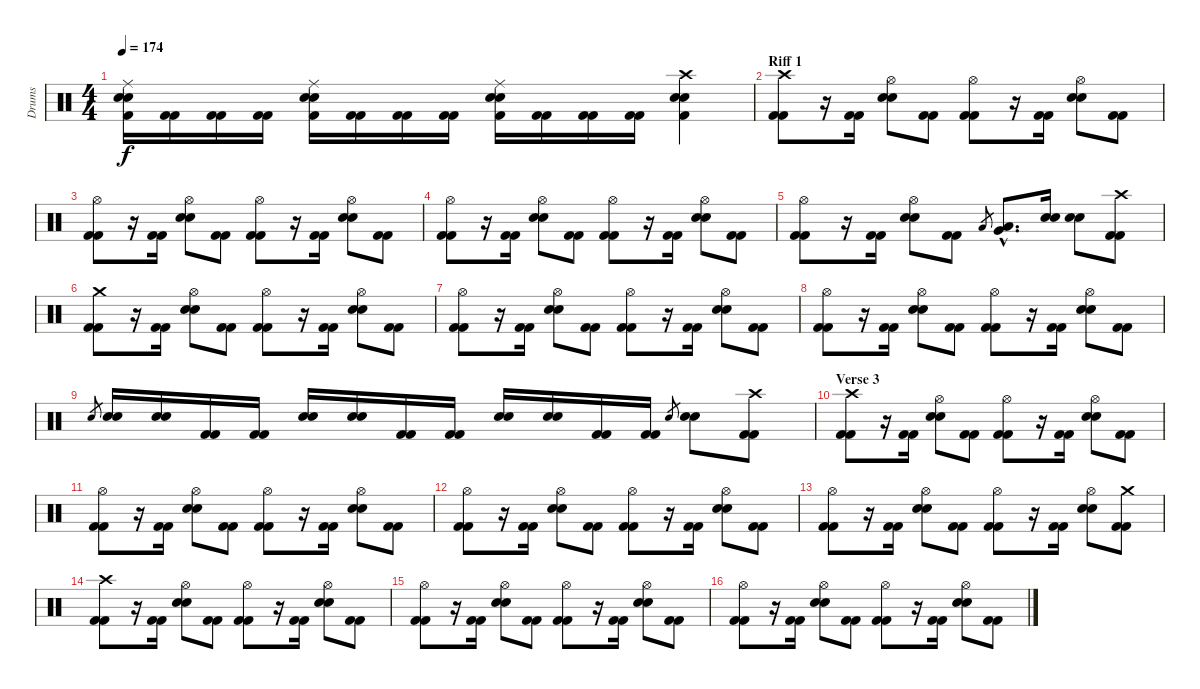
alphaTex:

\track ("Drums" "Drums") {instrument percussion}
\staff {score}
\articulation defaults
\ts (4 4)
\tempo 174
\clef neutral
\ks c
("Ride (middle)" "Snare (hit) 2" "Snare (hit) 2" "Kick (hit) 2").16{dy f} ("Kick (hit) 2" "Kick (hit) 2").16 ("Kick (hit) 2" "Kick (hit) 2").16 ("Kick (hit) 2" "Kick (hit) 2").16 ("Ride (middle)" "Snare (hit) 2" "Snare (hit) 2" "Kick (hit) 2").16 ("Kick (hit) 2" "Kick (hit) 2").16 ("Kick (hit) 2" "Kick (hit) 2").16 ("Kick (hit) 2" "Kick (hit) 2").16 ("Ride (middle)" "Snare (hit) 2" "Snare (hit) 2" "Kick (hit) 2").16 ("Kick (hit) 2" "Kick (hit) 2").16 ("Kick (hit) 2" "Kick (hit) 2").16 ("Kick (hit) 2" "Kick (hit) 2").16 ("Crash high (hit)" "Snare (hit) 2" "Snare (hit) 2" "Kick (hit) 2").4 |
\section ("" "Riff 1")
("Crash high (hit)" "Kick (hit) 2" "Kick (hit) 2").8 r.16 ("Kick (hit) 2" "Kick (hit) 2").16 ("Hi-Hat (open)" "Snare (hit) 2" "Snare (hit) 2").8 ("Kick (hit) 2" "Kick (hit) 2").8 ("Hi-Hat (open)" "Kick (hit) 2" "Kick (hit) 2").8 r.16 ("Kick (hit) 2" "Kick (hit) 2").16 ("Hi-Hat (open)" "Snare (hit) 2" "Snare (hit) 2").8 ("Kick (hit) 2" "Kick (hit) 2").8 |
("Hi-Hat (open)" "Kick (hit) 2" "Kick (hit) 2").8 r.16 ("Kick (hit) 2" "Kick (hit) 2").16 ("Hi-Hat (open)" "Snare (hit) 2" "Snare (hit) 2").8 ("Kick (hit) 2" "Kick (hit) 2").8 ("Hi-Hat (open)" "Kick (hit) 2" "Kick (hit) 2").8 r.16 ("Kick (hit) 2" "Kick (hit) 2").16 ("Hi-Hat (open)" "Snare (hit) 2" "Snare (hit) 2").8 ("Kick (hit) 2" "Kick (hit) 2").8 |
("Hi-Hat (open)" "Kick (hit) 2" "Kick (hit) 2").8 r.16 ("Kick (hit) 2" "Kick (hit) 2").16 ("Hi-Hat (open)" "Snare (hit) 2" "Snare (hit) 2").8 ("Kick (hit) 2" "Kick (hit) 2").8 ("Hi-Hat (open)" "Kick (hit) 2" "Kick (hit) 2").8 r.16 ("Kick (hit) 2" "Kick (hit) 2").16 ("Hi-Hat (open)" "Snare (hit) 2" "Snare (hit) 2").8 ("Kick (hit) 2" "Kick (hit) 2").8 |
("Hi-Hat (open)" "Kick (hit) 2" "Kick (hit) 2").8 r.16 ("Kick (hit) 2" "Kick (hit) 2").16 ("Hi-Hat (open)" "Snare (hit) 2" "Snare (hit) 2").8 ("Kick (hit) 2" "Kick (hit) 2").8 "Low Tom (hit)".8{gr} ("Low Tom (hit)"{hac} "Very Low Tom (hit)"{hac}).8{d} ("Snare (hit) 2" "Snare (hit) 2").16 ("Snare (hit) 2" "Snare (hit) 2").8 ("Crash high (hit)" "Kick (hit) 2" "Kick (hit) 2").8 |
("Crash medium (hit)" "Kick (hit) 2" "Kick (hit) 2").8 r.16 ("Kick (hit) 2" "Kick (hit) 2").16 ("Hi-Hat (open)" "Snare (hit) 2" "Snare (hit) 2").8 ("Kick (hit) 2" "Kick (hit) 2").8 ("Hi-Hat (open)" "Kick (hit) 2" "Kick (hit) 2").8 r.16 ("Kick (hit) 2" "Kick (hit) 2").16 ("Hi-Hat (open)" "Snare (hit) 2" "Snare (hit) 2").8 ("Kick (hit) 2" "Kick (hit) 2").8 |
("Hi-Hat (open)" "Kick (hit) 2" "Kick (hit) 2").8 r.16 ("Kick (hit) 2" "Kick (hit) 2").16 ("Hi-Hat (open)" "Snare (hit) 2" "Snare (hit) 2").8 ("Kick (hit) 2" "Kick (hit) 2").8 ("Hi-Hat (open)" "Kick (hit) 2" "Kick (hit) 2").8 r.16 ("Kick (hit) 2" "Kick (hit) 2").16 ("Hi-Hat (open)" "Snare (hit) 2" "Snare (hit) 2").8 ("Kick (hit) 2" "Kick (hit) 2").8 |
("Hi-Hat (open)" "Kick (hit) 2" "Kick (hit) 2").8 r.16 ("Kick (hit) 2" "Kick (hit) 2").16 ("Hi-Hat (open)" "Snare (hit) 2" "Snare (hit) 2").8 ("Kick (hit) 2" "Kick (hit) 2").8 ("Hi-Hat (open)" "Kick (hit) 2" "Kick (hit) 2").8 r.16 ("Kick (hit) 2" "Kick (hit) 2").16 ("Hi-Hat (open)" "Snare (hit) 2" "Snare (hit) 2").8 ("Kick (hit) 2" "Kick (hit) 2").8 |
"Snare (hit) 2".8{gr} ("Snare (hit) 2" "Snare (hit) 2").16 ("Snare (hit) 2" "Snare (hit) 2").16 ("Kick (hit) 2" "Kick (hit) 2").16 ("Kick (hit) 2" "Kick (hit) 2").16 ("Snare (hit) 2" "Snare (hit) 2").16 ("Snare (hit) 2" "Snare (hit) 2").16 ("Kick (hit) 2" "Kick (hit) 2").16 ("Kick (hit) 2" "Kick (hit) 2").16 ("Snare (hit) 2" "Snare (hit) 2").16 ("Snare (hit) 2" "Snare (hit) 2").16 ("Kick (hit) 2" "Kick (hit) 2").16 ("Kick (hit) 2" "Kick (hit) 2").16 "Snare (hit) 2".8{gr} ("Snare (hit) 2" "Snare (hit) 2").8 ("Crash high (hit)" "Kick (hit) 2" "Kick (hit) 2").8 |
\section ("" "Verse 3")
("Crash high (hit)" "Kick (hit) 2" "Kick (hit) 2").8 r.16 ("Kick (hit) 2" "Kick (hit) 2").16 ("Hi-Hat (open)" "Snare (hit) 2" "Snare (hit) 2").8 ("Kick (hit) 2" "Kick (hit) 2").8 ("Hi-Hat (open)" "Kick (hit) 2" "Kick (hit) 2").8 r.16 ("Kick (hit) 2" "Kick (hit) 2").16 ("Hi-Hat (open)" "Snare (hit) 2" "Snare (hit) 2").8 ("Kick (hit) 2" "Kick (hit) 2").8 |
("Hi-Hat (open)" "Kick (hit) 2" "Kick (hit) 2").8 r.16 ("Kick (hit) 2" "Kick (hit) 2").16 ("Hi-Hat (open)" "Snare (hit) 2" "Snare (hit) 2").8 ("Kick (hit) 2" "Kick (hit) 2").8 ("Hi-Hat (open)" "Kick (hit) 2" "Kick (hit) 2").8 r.16 ("Kick (hit) 2" "Kick (hit) 2").16 ("Hi-Hat (open)" "Snare (hit) 2" "Snare (hit) 2").8 ("Kick (hit) 2" "Kick (hit) 2").8 |
("Hi-Hat (open)" "Kick (hit) 2" "Kick (hit) 2").8 r.16 ("Kick (hit) 2" "Kick (hit) 2").16 ("Hi-Hat (open)" "Snare (hit) 2" "Snare (hit) 2").8 ("Kick (hit) 2" "Kick (hit) 2").8 ("Hi-Hat (open)" "Kick (hit) 2" "Kick (hit) 2").8 r.16 ("Kick (hit) 2" "Kick (hit) 2").16 ("Hi-Hat (open)" "Snare (hit) 2" "Snare (hit) 2").8 ("Kick (hit) 2" "Kick (hit) 2").8 |
("Hi-Hat (open)" "Kick (hit) 2" "Kick (hit) 2").8 r.16 ("Kick (hit) 2" "Kick (hit) 2").16 ("Hi-Hat (open)" "Snare (hit) 2" "Snare (hit) 2").8 ("Kick (hit) 2" "Kick (hit) 2").8 ("Hi-Hat (open)" "Kick (hit) 2" "Kick (hit) 2").8 r.16 ("Kick (hit) 2" "Kick (hit) 2").16 ("Hi-Hat (open)" "Snare (hit) 2" "Snare (hit) 2").8 ("Crash medium (hit)" "Kick (hit) 2" "Kick (hit) 2").8 |
("Crash high (hit)" "Kick (hit) 2" "Kick (hit) 2").8 r.16 ("Kick (hit) 2" "Kick (hit) 2").16 ("Hi-Hat (open)" "Snare (hit) 2" "Snare (hit) 2").8 ("Kick (hit) 2" "Kick (hit) 2").8 ("Hi-Hat (open)" "Kick (hit) 2" "Kick (hit) 2").8 r.16 ("Kick (hit) 2" "Kick (hit) 2").16 ("Hi-Hat (open)" "Snare (hit) 2" "Snare (hit) 2").8 ("Kick (hit) 2" "Kick (hit) 2").8 |
("Hi-Hat (open)" "Kick (hit) 2" "Kick (hit) 2").8 r.16 ("Kick (hit) 2" "Kick (hit) 2").16 ("Hi-Hat (open)" "Snare (hit) 2" "Snare (hit) 2").8 ("Kick (hit) 2" "Kick (hit) 2").8 ("Hi-Hat (open)" "Kick (hit) 2" "Kick (hit) 2").8 r.16 ("Kick (hit) 2" "Kick (hit) 2").16 ("Hi-Hat (open)" "Snare (hit) 2" "Snare (hit) 2").8 ("Kick (hit) 2" "Kick (hit) 2").8 |
("Hi-Hat (open)" "Kick (hit) 2" "Kick (hit) 2").8 r.16 ("Kick (hit) 2" "Kick (hit) 2").16 ("Hi-Hat (open)" "Snare (hit) 2" "Snare (hit) 2").8 ("Kick (hit) 2" "Kick (hit) 2").8 ("Hi-Hat (open)" "Kick (hit) 2" "Kick (hit) 2").8 r.16 ("Kick (hit) 2" "Kick (hit) 2").16 ("Hi-Hat (open)" "Snare (hit) 2" "Snare (hit) 2").8 ("Kick (hit) 2" "Kick (hit) 2").8
